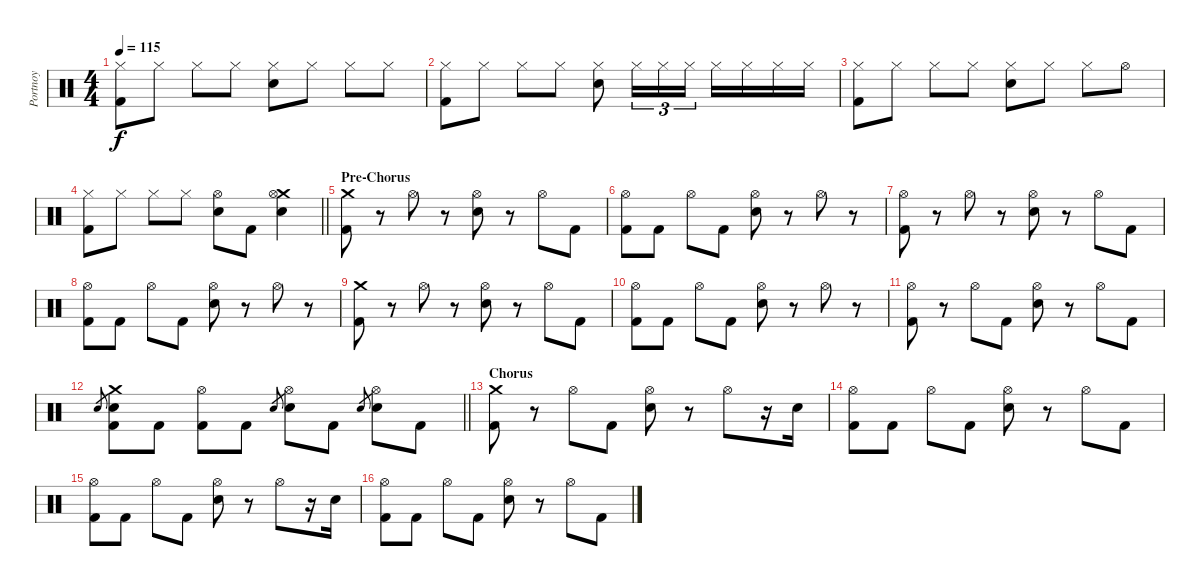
\track ("Portnoy" "Portnoy") {instrument percussion}
\staff {score}
\articulation defaults
\ts (4 4)
\tempo 115
\clef neutral
\ks c
("Hi-Hat (closed)" "Kick (hit) 2").8{dy f} "Hi-Hat (closed)".8 "Hi-Hat (closed)".8 "Hi-Hat (closed)".8 ("Hi-Hat (closed)" "Snare (hit) 2").8 "Hi-Hat (closed)".8 "Hi-Hat (closed)".8 "Hi-Hat (closed)".8 |
("Hi-Hat (closed)" "Kick (hit) 2").8 "Hi-Hat (closed)".8 "Hi-Hat (closed)".8 "Hi-Hat (closed)".8 ("Hi-Hat (closed)" "Snare (hit) 2").8 "Hi-Hat (closed)".16{tu (3 2)} "Hi-Hat (closed)".16{tu (3 2)} "Hi-Hat (closed)".16{tu (3 2)} "Hi-Hat (closed)".16 "Hi-Hat (closed)".16 "Hi-Hat (closed)".16 "Hi-Hat (closed)".16 |
("Hi-Hat (closed)" "Kick (hit) 2").8 "Hi-Hat (closed)".8 "Hi-Hat (closed)".8 "Hi-Hat (closed)".8 ("Hi-Hat (closed)" "Snare (hit) 2").8 "Hi-Hat (closed)".8 "Hi-Hat (closed)".8 "Hi-Hat (open)".8 |
\barLineRight lightlight
("Hi-Hat (closed)" "Kick (hit) 2").8 "Hi-Hat (closed)".8 "Hi-Hat (closed)".8 "Hi-Hat (closed)".8 ("Hi-Hat (open)" "Snare (hit) 2").8 "Kick (hit) 2".8 ("Crash medium (hit)" "Hi-Hat (open)" "Snare (hit) 2").4 |
\section ("" "Pre-Chorus")
("Crash medium (hit)" "Kick (hit) 2").8 r.8 "Hi-Hat (open)".8 r.8 ("Hi-Hat (open)" "Snare (hit) 2").8 r.8 "Hi-Hat (open)".8 "Kick (hit) 2".8 |
("Hi-Hat (open)" "Kick (hit) 2").8 "Kick (hit) 2".8 "Hi-Hat (open)".8 "Kick (hit) 2".8 ("Hi-Hat (open)" "Snare (hit) 2").8 r.8 "Hi-Hat (open)".8 r.8 |
("Hi-Hat (open)" "Kick (hit) 2").8 r.8 "Hi-Hat (open)".8 r.8 ("Hi-Hat (open)" "Snare (hit) 2").8 r.8 "Hi-Hat (open)".8 "Kick (hit) 2".8 |
("Hi-Hat (open)" "Kick (hit) 2").8 "Kick (hit) 2".8 "Hi-Hat (open)".8 "Kick (hit) 2".8 ("Hi-Hat (open)" "Snare (hit) 2").8 r.8 "Hi-Hat (open)".8 r.8 |
("Crash medium (hit)" "Kick (hit) 2").8 r.8 "Hi-Hat (open)".8 r.8 ("Hi-Hat (open)" "Snare (hit) 2").8 r.8 "Hi-Hat (open)".8 "Kick (hit) 2".8 |
("Hi-Hat (open)" "Kick (hit) 2").8 "Kick (hit) 2".8 "Hi-Hat (open)".8 "Kick (hit) 2".8 ("Hi-Hat (open)" "Snare (hit) 2").8 r.8 "Hi-Hat (open)".8 r.8 |
("Hi-Hat (open)" "Kick (hit) 2").8 r.8 "Hi-Hat (open)".8 "Kick (hit) 2".8 ("Hi-Hat (open)" "Snare (hit) 2").8 r.8 "Hi-Hat (open)".8 "Kick (hit) 2".8 |
\barLineRight lightlight "Snare (hit) 2".8{gr}
("Crash medium (hit)" "Snare (hit) 2" "Kick (hit) 2").8 "Kick (hit) 2".8 ("Hi-Hat (open)" "Kick (hit) 2").8 "Kick (hit) 2".8 "Snare (hit) 2".8{gr} ("Hi-Hat (open)" "Snare (hit) 2").8 "Kick (hit) 2".8 "Snare (hit) 2".8{gr} ("Hi-Hat (open)" "Snare (hit) 2").8 "Kick (hit) 2".8 |
\section ("" "Chorus")
("Crash medium (hit)" "Kick (hit) 2").8 r.8 "Hi-Hat (open)".8 "Kick (hit) 2".8 ("Hi-Hat (open)" "Snare (hit) 2").8 r.8 "Hi-Hat (open)".8 r.16 "Snare (hit) 2".16 |
("Hi-Hat (open)" "Kick (hit) 2").8 "Kick (hit) 2".8 "Hi-Hat (open)".8 "Kick (hit) 2".8 ("Hi-Hat (open)" "Snare (hit) 2").8 r.8 "Hi-Hat (open)".8 "Kick (hit) 2".8 |
("Hi-Hat (open)" "Kick (hit) 2").8 "Kick (hit) 2".8 "Hi-Hat (open)".8 "Kick (hit) 2".8 ("Hi-Hat (open)" "Snare (hit) 2").8 r.8 "Hi-Hat (open)".8 r.16 "Snare (hit) 2".16 |
("Hi-Hat (open)" "Kick (hit) 2").8 "Kick (hit) 2".8 "Hi-Hat (open)".8 "Kick (hit) 2".8 ("Hi-Hat (open)" "Snare (hit) 2").8 r.8 "Hi-Hat (open)".8 "Kick (hit) 2".8
